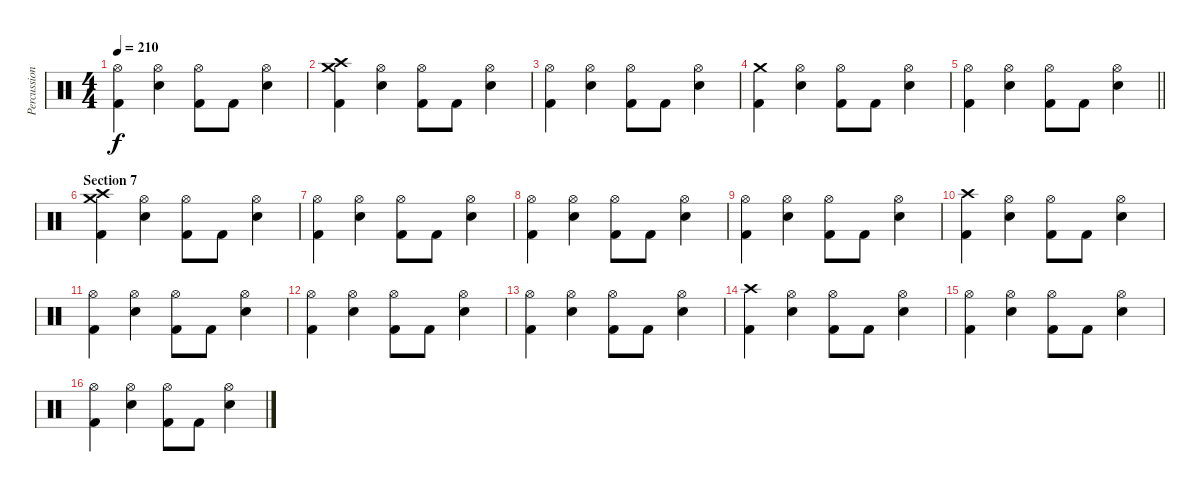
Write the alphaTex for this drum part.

\track ("Percussion" "Percussion") {instrument percussion}
\staff {score}
\articulation defaults
\ts (4 4)
\tempo 210
\clef neutral
\ks c
("Kick (hit) 2" "Hi-Hat (open)").4{dy f} ("Electric Snare (hit)" "Hi-Hat (open)").4 ("Kick (hit) 2" "Hi-Hat (open)").8 "Kick (hit) 2".8 ("Electric Snare (hit)" "Hi-Hat (open)").4 |
("Kick (hit) 2" "Crash medium (hit)" "Crash high (hit)").4 ("Electric Snare (hit)" "Hi-Hat (open)").4 ("Kick (hit) 2" "Hi-Hat (open)").8 "Kick (hit) 2".8 ("Electric Snare (hit)" "Hi-Hat (open)").4 |
("Kick (hit) 2" "Hi-Hat (open)").4 ("Electric Snare (hit)" "Hi-Hat (open)").4 ("Kick (hit) 2" "Hi-Hat (open)").8 "Kick (hit) 2".8 ("Electric Snare (hit)" "Hi-Hat (open)").4 |
("Kick (hit) 2" "Crash medium (hit)").4 ("Electric Snare (hit)" "Hi-Hat (open)").4 ("Kick (hit) 2" "Hi-Hat (open)").8 "Kick (hit) 2".8 ("Electric Snare (hit)" "Hi-Hat (open)").4 |
\barLineRight lightlight
("Kick (hit) 2" "Hi-Hat (open)").4 ("Electric Snare (hit)" "Hi-Hat (open)").4 ("Kick (hit) 2" "Hi-Hat (open)").8 "Kick (hit) 2".8 ("Electric Snare (hit)" "Hi-Hat (open)").4 |
\section ("" "Section 7")
("Kick (hit) 2" "Crash medium (hit)" "Crash high (hit)").4 ("Electric Snare (hit)" "Hi-Hat (open)").4 ("Kick (hit) 2" "Hi-Hat (open)").8 "Kick (hit) 2".8 ("Electric Snare (hit)" "Hi-Hat (open)").4 |
("Kick (hit) 2" "Hi-Hat (open)").4 ("Electric Snare (hit)" "Hi-Hat (open)").4 ("Kick (hit) 2" "Hi-Hat (open)").8 "Kick (hit) 2".8 ("Electric Snare (hit)" "Hi-Hat (open)").4 |
("Kick (hit) 2" "Hi-Hat (open)").4 ("Electric Snare (hit)" "Hi-Hat (open)").4 ("Kick (hit) 2" "Hi-Hat (open)").8 "Kick (hit) 2".8 ("Electric Snare (hit)" "Hi-Hat (open)").4 |
("Kick (hit) 2" "Hi-Hat (open)").4 ("Electric Snare (hit)" "Hi-Hat (open)").4 ("Kick (hit) 2" "Hi-Hat (open)").8 "Kick (hit) 2".8 ("Electric Snare (hit)" "Hi-Hat (open)").4 |
("Kick (hit) 2" "Crash high (hit)").4 ("Electric Snare (hit)" "Hi-Hat (open)").4 ("Kick (hit) 2" "Hi-Hat (open)").8 "Kick (hit) 2".8 ("Electric Snare (hit)" "Hi-Hat (open)").4 |
("Kick (hit) 2" "Hi-Hat (open)").4 ("Electric Snare (hit)" "Hi-Hat (open)").4 ("Kick (hit) 2" "Hi-Hat (open)").8 "Kick (hit) 2".8 ("Electric Snare (hit)" "Hi-Hat (open)").4 |
("Kick (hit) 2" "Hi-Hat (open)").4 ("Electric Snare (hit)" "Hi-Hat (open)").4 ("Kick (hit) 2" "Hi-Hat (open)").8 "Kick (hit) 2".8 ("Electric Snare (hit)" "Hi-Hat (open)").4 |
("Kick (hit) 2" "Hi-Hat (open)").4 ("Electric Snare (hit)" "Hi-Hat (open)").4 ("Kick (hit) 2" "Hi-Hat (open)").8 "Kick (hit) 2".8 ("Electric Snare (hit)" "Hi-Hat (open)").4 |
("Kick (hit) 2" "Crash high (hit)").4 ("Electric Snare (hit)" "Hi-Hat (open)").4 ("Kick (hit) 2" "Hi-Hat (open)").8 "Kick (hit) 2".8 ("Electric Snare (hit)" "Hi-Hat (open)").4 |
("Kick (hit) 2" "Hi-Hat (open)").4 ("Electric Snare (hit)" "Hi-Hat (open)").4 ("Kick (hit) 2" "Hi-Hat (open)").8 "Kick (hit) 2".8 ("Electric Snare (hit)" "Hi-Hat (open)").4 |
("Kick (hit) 2" "Hi-Hat (open)").4 ("Electric Snare (hit)" "Hi-Hat (open)").4 ("Kick (hit) 2" "Hi-Hat (open)").8 "Kick (hit) 2".8 ("Electric Snare (hit)" "Hi-Hat (open)").4
